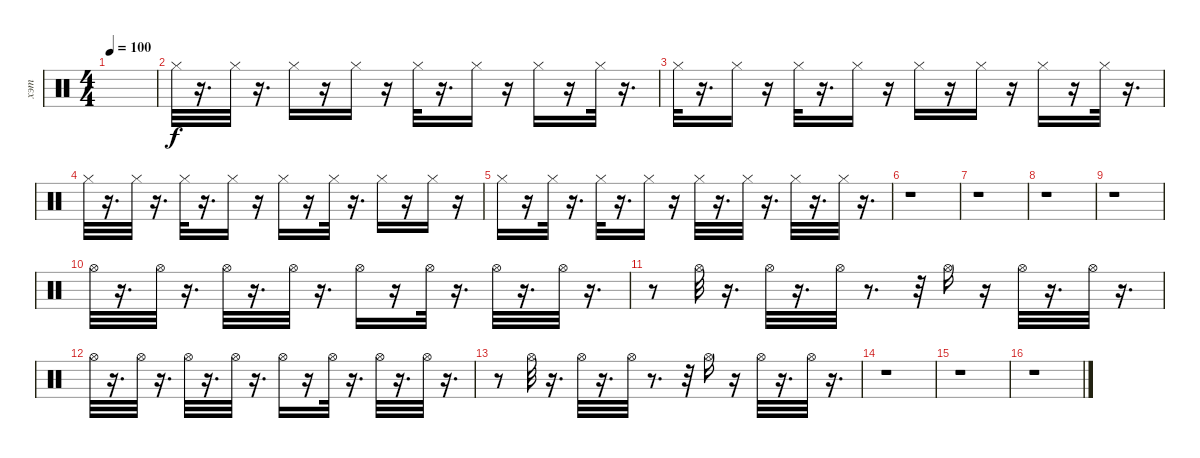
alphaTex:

\track ("хэт" "хэт") {instrument percussion}
\staff {score}
\articulation defaults
\ts (4 4)
\tempo 100
\clef neutral
\ks c
|
"Hi-Hat (closed)".32 r.16{d} "Hi-Hat (closed)".32 r.16{d} "Hi-Hat (closed)".16 r.16 "Hi-Hat (closed)".16 r.16 "Hi-Hat (closed)".32 r.16{d} "Hi-Hat (closed)".16 r.16 "Hi-Hat (closed)".16 r.16 "Hi-Hat (closed)".32 r.16{d} |
"Hi-Hat (closed)".32 r.16{d} "Hi-Hat (closed)".16 r.16 "Hi-Hat (closed)".32 r.16{d} "Hi-Hat (closed)".16 r.16 "Hi-Hat (closed)".16 r.16 "Hi-Hat (closed)".16 r.16 "Hi-Hat (closed)".16 r.16 "Hi-Hat (closed)".32 r.16{d} |
"Hi-Hat (closed)".32 r.16{d} "Hi-Hat (closed)".32 r.16{d} "Hi-Hat (closed)".32 r.16{d} "Hi-Hat (closed)".16 r.16 "Hi-Hat (closed)".16 r.16 "Hi-Hat (closed)".32 r.16{d} "Hi-Hat (closed)".16 r.16 "Hi-Hat (closed)".16 r.16 |
"Hi-Hat (closed)".16 r.16 "Hi-Hat (closed)".32 r.16{d} "Hi-Hat (closed)".32 r.16{d} "Hi-Hat (closed)".16 r.16 "Hi-Hat (closed)".32 r.16{d} "Hi-Hat (closed)".32 r.16{d} "Hi-Hat (closed)".32 r.16{d} "Hi-Hat (closed)".32 r.16{d} |
r.1 |
r.1 |
r.1 |
r.1 |
"Hi-Hat (open)".32 r.16{d} "Hi-Hat (open)".32 r.16{d} "Hi-Hat (open)".32 r.16{d} "Hi-Hat (open)".32 r.16{d} "Hi-Hat (open)".16 r.16 "Hi-Hat (open)".32 r.16{d} "Hi-Hat (open)".32 r.16{d} "Hi-Hat (open)".32 r.16{d} |
r.8 "Hi-Hat (open)".32 r.16{d} "Hi-Hat (open)".32 r.16{d} "Hi-Hat (open)".32 r.8{d} r.32 "Hi-Hat (open)".16 r.16 "Hi-Hat (open)".32 r.16{d} "Hi-Hat (open)".32 r.16{d} |
"Hi-Hat (open)".32 r.16{d} "Hi-Hat (open)".32 r.16{d} "Hi-Hat (open)".32 r.16{d} "Hi-Hat (open)".32 r.16{d} "Hi-Hat (open)".16 r.16 "Hi-Hat (open)".32 r.16{d} "Hi-Hat (open)".32 r.16{d} "Hi-Hat (open)".32 r.16{d} |
r.8 "Hi-Hat (open)".32 r.16{d} "Hi-Hat (open)".32 r.16{d} "Hi-Hat (open)".32 r.8{d} r.32 "Hi-Hat (open)".16 r.16 "Hi-Hat (open)".32 r.16{d} "Hi-Hat (open)".32 r.16{d} |
r.1 |
r.1 |
r.1
